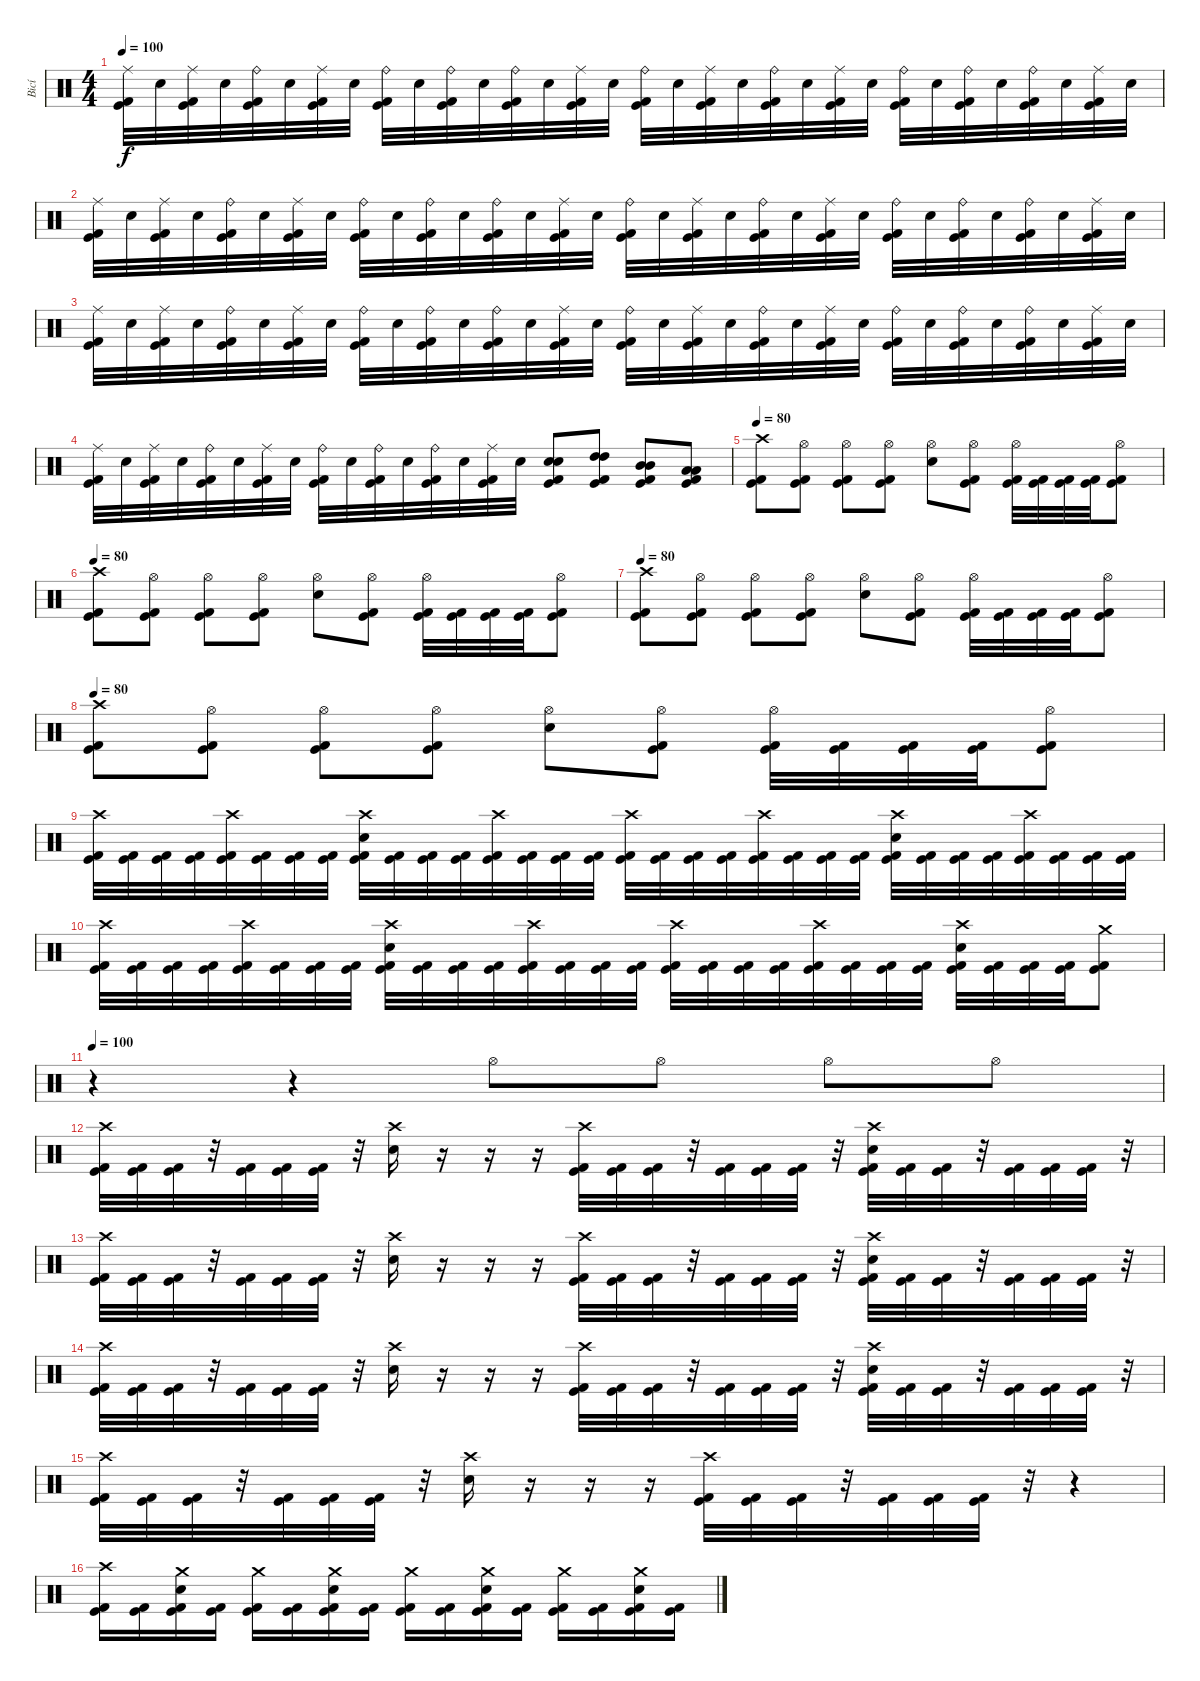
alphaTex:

\track ("Bicí" "Bicí") {instrument percussion}
\staff {score}
\articulation defaults
\ts (4 4)
\tempo 100
\clef neutral
\ks c
("Kick (hit) 2" "Kick (hit)" "Ride (middle)").32{dy f} "Electric Snare (hit)".32 ("Kick (hit) 2" "Kick (hit)" "Ride (middle)").32 "Electric Snare (hit)".32 ("Kick (hit) 2" "Kick (hit)" "Ride (bell)").32 "Electric Snare (hit)".32 ("Kick (hit) 2" "Kick (hit)" "Ride (middle)").32 "Electric Snare (hit)".32 ("Kick (hit) 2" "Kick (hit)" "Ride (bell)").32 "Electric Snare (hit)".32 ("Kick (hit) 2" "Kick (hit)" "Ride (bell)").32 "Electric Snare (hit)".32 ("Kick (hit) 2" "Kick (hit)" "Ride (bell)").32 "Electric Snare (hit)".32 ("Kick (hit) 2" "Kick (hit)" "Ride (middle)").32 "Electric Snare (hit)".32 ("Kick (hit) 2" "Kick (hit)" "Ride (bell)").32 "Electric Snare (hit)".32 ("Kick (hit) 2" "Kick (hit)" "Ride (middle)").32 "Electric Snare (hit)".32 ("Kick (hit) 2" "Kick (hit)" "Ride (bell)").32 "Electric Snare (hit)".32 ("Kick (hit) 2" "Kick (hit)" "Ride (middle)").32 "Electric Snare (hit)".32 ("Kick (hit) 2" "Kick (hit)" "Ride (bell)").32 "Electric Snare (hit)".32 ("Kick (hit) 2" "Kick (hit)" "Ride (bell)").32 "Electric Snare (hit)".32 ("Kick (hit) 2" "Kick (hit)" "Ride (bell)").32 "Electric Snare (hit)".32 ("Kick (hit) 2" "Kick (hit)" "Ride (middle)").32 "Electric Snare (hit)".32 |
("Kick (hit) 2" "Kick (hit)" "Ride (middle)").32 "Electric Snare (hit)".32 ("Kick (hit) 2" "Kick (hit)" "Ride (middle)").32 "Electric Snare (hit)".32 ("Kick (hit) 2" "Kick (hit)" "Ride (bell)").32 "Electric Snare (hit)".32 ("Kick (hit) 2" "Kick (hit)" "Ride (middle)").32 "Electric Snare (hit)".32 ("Kick (hit) 2" "Kick (hit)" "Ride (bell)").32 "Electric Snare (hit)".32 ("Kick (hit) 2" "Kick (hit)" "Ride (bell)").32 "Electric Snare (hit)".32 ("Kick (hit) 2" "Kick (hit)" "Ride (bell)").32 "Electric Snare (hit)".32 ("Kick (hit) 2" "Kick (hit)" "Ride (middle)").32 "Electric Snare (hit)".32 ("Kick (hit) 2" "Kick (hit)" "Ride (bell)").32 "Electric Snare (hit)".32 ("Kick (hit) 2" "Kick (hit)" "Ride (middle)").32 "Electric Snare (hit)".32 ("Kick (hit) 2" "Kick (hit)" "Ride (bell)").32 "Electric Snare (hit)".32 ("Kick (hit) 2" "Kick (hit)" "Ride (middle)").32 "Electric Snare (hit)".32 ("Kick (hit) 2" "Kick (hit)" "Ride (bell)").32 "Electric Snare (hit)".32 ("Kick (hit) 2" "Kick (hit)" "Ride (bell)").32 "Electric Snare (hit)".32 ("Kick (hit) 2" "Kick (hit)" "Ride (bell)").32 "Electric Snare (hit)".32 ("Kick (hit) 2" "Kick (hit)" "Ride (middle)").32 "Electric Snare (hit)".32 |
("Kick (hit) 2" "Kick (hit)" "Ride (middle)").32 "Electric Snare (hit)".32 ("Kick (hit) 2" "Kick (hit)" "Ride (middle)").32 "Electric Snare (hit)".32 ("Kick (hit) 2" "Kick (hit)" "Ride (bell)").32 "Electric Snare (hit)".32 ("Kick (hit) 2" "Kick (hit)" "Ride (middle)").32 "Electric Snare (hit)".32 ("Kick (hit) 2" "Kick (hit)" "Ride (bell)").32 "Electric Snare (hit)".32 ("Kick (hit) 2" "Kick (hit)" "Ride (bell)").32 "Electric Snare (hit)".32 ("Kick (hit) 2" "Kick (hit)" "Ride (bell)").32 "Electric Snare (hit)".32 ("Kick (hit) 2" "Kick (hit)" "Ride (middle)").32 "Electric Snare (hit)".32 ("Kick (hit) 2" "Kick (hit)" "Ride (bell)").32 "Electric Snare (hit)".32 ("Kick (hit) 2" "Kick (hit)" "Ride (middle)").32 "Electric Snare (hit)".32 ("Kick (hit) 2" "Kick (hit)" "Ride (bell)").32 "Electric Snare (hit)".32 ("Kick (hit) 2" "Kick (hit)" "Ride (middle)").32 "Electric Snare (hit)".32 ("Kick (hit) 2" "Kick (hit)" "Ride (bell)").32 "Electric Snare (hit)".32 ("Kick (hit) 2" "Kick (hit)" "Ride (bell)").32 "Electric Snare (hit)".32 ("Kick (hit) 2" "Kick (hit)" "Ride (bell)").32 "Electric Snare (hit)".32 ("Kick (hit) 2" "Kick (hit)" "Ride (middle)").32 "Electric Snare (hit)".32 |
("Kick (hit) 2" "Kick (hit)" "Ride (middle)").32 "Electric Snare (hit)".32 ("Kick (hit) 2" "Kick (hit)" "Ride (middle)").32 "Electric Snare (hit)".32 ("Kick (hit) 2" "Kick (hit)" "Ride (bell)").32 "Electric Snare (hit)".32 ("Kick (hit) 2" "Kick (hit)" "Ride (middle)").32 "Electric Snare (hit)".32 ("Kick (hit) 2" "Kick (hit)" "Ride (bell)").32 "Electric Snare (hit)".32 ("Kick (hit) 2" "Kick (hit)" "Ride (bell)").32 "Electric Snare (hit)".32 ("Kick (hit) 2" "Kick (hit)" "Ride (bell)").32 "Electric Snare (hit)".32 ("Kick (hit) 2" "Kick (hit)" "Ride (middle)").32 "Electric Snare (hit)".32 ("Kick (hit)" "Kick (hit) 2" "Electric Snare (hit)" "Electric Snare (hit)").8 ("Kick (hit) 2" "Kick (hit)" "High Tom (hit)" "High Tom (hit)").8 ("Kick (hit)" "Kick (hit) 2" "Mid Tom (hit)" "Mid Tom (hit)").8 ("Kick (hit)" "Kick (hit) 2" "Low Tom (hit)" "Low Tom (hit)").8 |
\tempo 80
("Crash high (hit)" "Kick (hit) 2" "Kick (hit)").8 ("Hi-Hat (open)" "Kick (hit) 2" "Kick (hit)").8 ("Hi-Hat (open)" "Kick (hit) 2" "Kick (hit)").8 ("Kick (hit) 2" "Hi-Hat (open)" "Kick (hit)").8 ("Hi-Hat (open)" "Electric Snare (hit)").8 ("Kick (hit) 2" "Kick (hit)" "Hi-Hat (open)").8 ("Hi-Hat (open)" "Kick (hit)" "Kick (hit) 2").32 ("Kick (hit)" "Kick (hit) 2").32 ("Kick (hit)" "Kick (hit) 2").32 ("Kick (hit)" "Kick (hit) 2").32 ("Hi-Hat (open)" "Kick (hit)" "Kick (hit) 2").8 |
\tempo 80
("Crash high (hit)" "Kick (hit) 2" "Kick (hit)").8 ("Hi-Hat (open)" "Kick (hit) 2" "Kick (hit)").8 ("Hi-Hat (open)" "Kick (hit) 2" "Kick (hit)").8 ("Kick (hit) 2" "Hi-Hat (open)" "Kick (hit)").8 ("Hi-Hat (open)" "Electric Snare (hit)").8 ("Kick (hit) 2" "Kick (hit)" "Hi-Hat (open)").8 ("Hi-Hat (open)" "Kick (hit)" "Kick (hit) 2").32 ("Kick (hit)" "Kick (hit) 2").32 ("Kick (hit)" "Kick (hit) 2").32 ("Kick (hit)" "Kick (hit) 2").32 ("Hi-Hat (open)" "Kick (hit)" "Kick (hit) 2").8 |
\tempo 80
("Crash high (hit)" "Kick (hit) 2" "Kick (hit)").8 ("Hi-Hat (open)" "Kick (hit) 2" "Kick (hit)").8 ("Hi-Hat (open)" "Kick (hit) 2" "Kick (hit)").8 ("Kick (hit) 2" "Hi-Hat (open)" "Kick (hit)").8 ("Hi-Hat (open)" "Electric Snare (hit)").8 ("Kick (hit) 2" "Kick (hit)" "Hi-Hat (open)").8 ("Hi-Hat (open)" "Kick (hit)" "Kick (hit) 2").32 ("Kick (hit)" "Kick (hit) 2").32 ("Kick (hit)" "Kick (hit) 2").32 ("Kick (hit)" "Kick (hit) 2").32 ("Hi-Hat (open)" "Kick (hit)" "Kick (hit) 2").8 |
\tempo 80
("Crash high (hit)" "Kick (hit) 2" "Kick (hit)").8 ("Hi-Hat (open)" "Kick (hit) 2" "Kick (hit)").8 ("Hi-Hat (open)" "Kick (hit) 2" "Kick (hit)").8 ("Kick (hit) 2" "Hi-Hat (open)" "Kick (hit)").8 ("Hi-Hat (open)" "Electric Snare (hit)").8 ("Kick (hit) 2" "Kick (hit)" "Hi-Hat (open)").8 ("Hi-Hat (open)" "Kick (hit)" "Kick (hit) 2").32 ("Kick (hit)" "Kick (hit) 2").32 ("Kick (hit)" "Kick (hit) 2").32 ("Kick (hit)" "Kick (hit) 2").32 ("Hi-Hat (open)" "Kick (hit)" "Kick (hit) 2").8 |
("Crash high (hit)" "Kick (hit)" "Kick (hit) 2").32 ("Kick (hit)" "Kick (hit) 2").32 ("Kick (hit)" "Kick (hit) 2").32 ("Kick (hit)" "Kick (hit) 2").32 ("Crash high (hit)" "Kick (hit)" "Kick (hit) 2").32 ("Kick (hit)" "Kick (hit) 2").32 ("Kick (hit)" "Kick (hit) 2").32 ("Kick (hit)" "Kick (hit) 2").32 ("Crash high (hit)" "Kick (hit)" "Kick (hit) 2" "Electric Snare (hit)").32 ("Kick (hit)" "Kick (hit) 2").32 ("Kick (hit)" "Kick (hit) 2").32 ("Kick (hit)" "Kick (hit) 2").32 ("Crash high (hit)" "Kick (hit)" "Kick (hit) 2").32 ("Kick (hit)" "Kick (hit) 2").32 ("Kick (hit)" "Kick (hit) 2").32 ("Kick (hit)" "Kick (hit) 2").32 ("Crash high (hit)" "Kick (hit)" "Kick (hit) 2").32 ("Kick (hit)" "Kick (hit) 2").32 ("Kick (hit)" "Kick (hit) 2").32 ("Kick (hit)" "Kick (hit) 2").32 ("Crash high (hit)" "Kick (hit)" "Kick (hit) 2").32 ("Kick (hit)" "Kick (hit) 2").32 ("Kick (hit)" "Kick (hit) 2").32 ("Kick (hit)" "Kick (hit) 2").32 ("Crash high (hit)" "Kick (hit)" "Kick (hit) 2" "Electric Snare (hit)").32 ("Kick (hit)" "Kick (hit) 2").32 ("Kick (hit)" "Kick (hit) 2").32 ("Kick (hit)" "Kick (hit) 2").32 ("Crash high (hit)" "Kick (hit)" "Kick (hit) 2").32 ("Kick (hit)" "Kick (hit) 2").32 ("Kick (hit)" "Kick (hit) 2").32 ("Kick (hit)" "Kick (hit) 2").32 |
("Crash high (hit)" "Kick (hit)" "Kick (hit) 2").32 ("Kick (hit)" "Kick (hit) 2").32 ("Kick (hit)" "Kick (hit) 2").32 ("Kick (hit)" "Kick (hit) 2").32 ("Crash high (hit)" "Kick (hit)" "Kick (hit) 2").32 ("Kick (hit)" "Kick (hit) 2").32 ("Kick (hit)" "Kick (hit) 2").32 ("Kick (hit)" "Kick (hit) 2").32 ("Crash high (hit)" "Kick (hit)" "Kick (hit) 2" "Electric Snare (hit)").32 ("Kick (hit)" "Kick (hit) 2").32 ("Kick (hit)" "Kick (hit) 2").32 ("Kick (hit)" "Kick (hit) 2").32 ("Crash high (hit)" "Kick (hit)" "Kick (hit) 2").32 ("Kick (hit)" "Kick (hit) 2").32 ("Kick (hit)" "Kick (hit) 2").32 ("Kick (hit)" "Kick (hit) 2").32 ("Crash high (hit)" "Kick (hit)" "Kick (hit) 2").32 ("Kick (hit)" "Kick (hit) 2").32 ("Kick (hit)" "Kick (hit) 2").32 ("Kick (hit)" "Kick (hit) 2").32 ("Crash high (hit)" "Kick (hit)" "Kick (hit) 2").32 ("Kick (hit)" "Kick (hit) 2").32 ("Kick (hit)" "Kick (hit) 2").32 ("Kick (hit)" "Kick (hit) 2").32 ("Crash high (hit)" "Kick (hit)" "Kick (hit) 2" "Electric Snare (hit)").32 ("Kick (hit)" "Kick (hit) 2").32 ("Kick (hit)" "Kick (hit) 2").32 ("Kick (hit)" "Kick (hit) 2").32 ("Crash medium (hit)" "Kick (hit)" "Kick (hit) 2").8 |
\tempo 100
r.4 r.4 "Hi-Hat (open)".8 "Hi-Hat (open)".8 "Hi-Hat (open)".8 "Hi-Hat (open)".8 |
("Kick (hit) 2" "Kick (hit)" "Crash high (hit)").32 ("Kick (hit) 2" "Kick (hit)").32 ("Kick (hit) 2" "Kick (hit)").32 r.32 ("Kick (hit) 2" "Kick (hit)").32 ("Kick (hit) 2" "Kick (hit)").32 ("Kick (hit) 2" "Kick (hit)").32 r.32 ("Crash high (hit)" "Electric Snare (hit)").16 r.16 r.16 r.16 ("Kick (hit) 2" "Kick (hit)" "Crash high (hit)").32 ("Kick (hit) 2" "Kick (hit)").32 ("Kick (hit) 2" "Kick (hit)").32 r.32 ("Kick (hit) 2" "Kick (hit)").32 ("Kick (hit) 2" "Kick (hit)").32 ("Kick (hit) 2" "Kick (hit)").32 r.32 ("Kick (hit) 2" "Kick (hit)" "Crash high (hit)" "Electric Snare (hit)").32 ("Kick (hit) 2" "Kick (hit)").32 ("Kick (hit) 2" "Kick (hit)").32 r.32 ("Kick (hit) 2" "Kick (hit)").32 ("Kick (hit) 2" "Kick (hit)").32 ("Kick (hit) 2" "Kick (hit)").32 r.32 |
("Kick (hit) 2" "Kick (hit)" "Crash high (hit)").32 ("Kick (hit) 2" "Kick (hit)").32 ("Kick (hit) 2" "Kick (hit)").32 r.32 ("Kick (hit) 2" "Kick (hit)").32 ("Kick (hit) 2" "Kick (hit)").32 ("Kick (hit) 2" "Kick (hit)").32 r.32 ("Crash high (hit)" "Electric Snare (hit)").16 r.16 r.16 r.16 ("Kick (hit) 2" "Kick (hit)" "Crash high (hit)").32 ("Kick (hit) 2" "Kick (hit)").32 ("Kick (hit) 2" "Kick (hit)").32 r.32 ("Kick (hit) 2" "Kick (hit)").32 ("Kick (hit) 2" "Kick (hit)").32 ("Kick (hit) 2" "Kick (hit)").32 r.32 ("Kick (hit) 2" "Kick (hit)" "Crash high (hit)" "Electric Snare (hit)").32 ("Kick (hit) 2" "Kick (hit)").32 ("Kick (hit) 2" "Kick (hit)").32 r.32 ("Kick (hit) 2" "Kick (hit)").32 ("Kick (hit) 2" "Kick (hit)").32 ("Kick (hit) 2" "Kick (hit)").32 r.32 |
("Kick (hit) 2" "Kick (hit)" "Crash high (hit)").32 ("Kick (hit) 2" "Kick (hit)").32 ("Kick (hit) 2" "Kick (hit)").32 r.32 ("Kick (hit) 2" "Kick (hit)").32 ("Kick (hit) 2" "Kick (hit)").32 ("Kick (hit) 2" "Kick (hit)").32 r.32 ("Crash high (hit)" "Electric Snare (hit)").16 r.16 r.16 r.16 ("Kick (hit) 2" "Kick (hit)" "Crash high (hit)").32 ("Kick (hit) 2" "Kick (hit)").32 ("Kick (hit) 2" "Kick (hit)").32 r.32 ("Kick (hit) 2" "Kick (hit)").32 ("Kick (hit) 2" "Kick (hit)").32 ("Kick (hit) 2" "Kick (hit)").32 r.32 ("Kick (hit) 2" "Kick (hit)" "Crash high (hit)" "Electric Snare (hit)").32 ("Kick (hit) 2" "Kick (hit)").32 ("Kick (hit) 2" "Kick (hit)").32 r.32 ("Kick (hit) 2" "Kick (hit)").32 ("Kick (hit) 2" "Kick (hit)").32 ("Kick (hit) 2" "Kick (hit)").32 r.32 |
("Kick (hit) 2" "Kick (hit)" "Crash high (hit)").32 ("Kick (hit) 2" "Kick (hit)").32 ("Kick (hit) 2" "Kick (hit)").32 r.32 ("Kick (hit) 2" "Kick (hit)").32 ("Kick (hit) 2" "Kick (hit)").32 ("Kick (hit) 2" "Kick (hit)").32 r.32 ("Crash high (hit)" "Electric Snare (hit)").16 r.16 r.16 r.16 ("Kick (hit) 2" "Kick (hit)" "Crash high (hit)").32 ("Kick (hit) 2" "Kick (hit)").32 ("Kick (hit) 2" "Kick (hit)").32 r.32 ("Kick (hit) 2" "Kick (hit)").32 ("Kick (hit) 2" "Kick (hit)").32 ("Kick (hit) 2" "Kick (hit)").32 r.32 r.4 |
("Kick (hit) 2" "Kick (hit)" "Crash high (hit)").16 ("Kick (hit) 2" "Kick (hit)").16 ("Kick (hit) 2" "Kick (hit)" "Electric Snare (hit)" "Crash medium (hit)").16 ("Kick (hit)" "Kick (hit) 2").16 ("Kick (hit) 2" "Kick (hit)" "Crash medium (hit)").16 ("Kick (hit) 2" "Kick (hit)").16 ("Kick (hit) 2" "Kick (hit)" "Electric Snare (hit)" "Crash medium (hit)").16 ("Kick (hit)" "Kick (hit) 2").16 ("Kick (hit) 2" "Kick (hit)" "Crash medium (hit)").16 ("Kick (hit) 2" "Kick (hit)").16 ("Kick (hit) 2" "Kick (hit)" "Electric Snare (hit)" "Crash medium (hit)").16 ("Kick (hit)" "Kick (hit) 2").16 ("Kick (hit) 2" "Kick (hit)" "Crash medium (hit)").16 ("Kick (hit) 2" "Kick (hit)").16 ("Kick (hit) 2" "Kick (hit)" "Electric Snare (hit)" "Crash medium (hit)").16 ("Kick (hit)" "Kick (hit) 2").16
